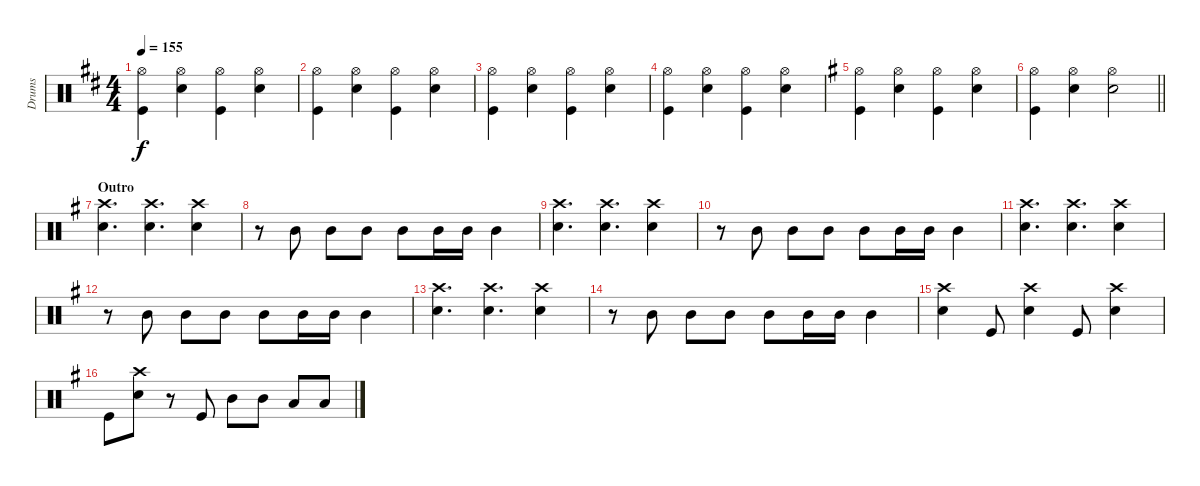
\track ("Drums" "Drums") {instrument percussion}
\staff {score}
\articulation defaults
\ts (4 4)
\tempo 155
\clef neutral
\ks d
("Hi-Hat (open)" "Kick (hit)").4{dy f} ("Hi-Hat (open)" "Snare (hit) 2").4 ("Hi-Hat (open)" "Kick (hit)").4 ("Hi-Hat (open)" "Snare (hit) 2").4 |
("Hi-Hat (open)" "Kick (hit)").4 ("Hi-Hat (open)" "Snare (hit) 2").4 ("Hi-Hat (open)" "Kick (hit)").4 ("Hi-Hat (open)" "Snare (hit) 2").4 |
("Hi-Hat (open)" "Kick (hit)").4 ("Hi-Hat (open)" "Snare (hit) 2").4 ("Hi-Hat (open)" "Kick (hit)").4 ("Hi-Hat (open)" "Snare (hit) 2").4 |
("Hi-Hat (open)" "Kick (hit)").4 ("Hi-Hat (open)" "Snare (hit) 2").4 ("Hi-Hat (open)" "Kick (hit)").4 ("Hi-Hat (open)" "Snare (hit) 2").4 |
\ks g
("Hi-Hat (open)" "Kick (hit)").4 ("Hi-Hat (open)" "Snare (hit) 2").4 ("Hi-Hat (open)" "Kick (hit)").4 ("Hi-Hat (open)" "Snare (hit) 2").4 |
\barLineRight lightlight
("Hi-Hat (open)" "Kick (hit)").4 ("Hi-Hat (open)" "Snare (hit) 2").4 ("Hi-Hat (open)" "Snare (hit) 2").2 |
\section ("" "Outro")
("Crash high (hit)" "Snare (hit) 2").4{d} ("Crash high (hit)" "Snare (hit) 2").4{d} ("Crash high (hit)" "Snare (hit) 2").4 |
r.8 "Mid Tom (hit)".8 "Mid Tom (hit)".8 "Mid Tom (hit)".8 "Mid Tom (hit)".8 "Mid Tom (hit)".16 "Mid Tom (hit)".16 "Mid Tom (hit)".4 |
("Crash high (hit)" "Snare (hit) 2").4{d} ("Crash high (hit)" "Snare (hit) 2").4{d} ("Crash high (hit)" "Snare (hit) 2").4 |
r.8 "Mid Tom (hit)".8 "Mid Tom (hit)".8 "Mid Tom (hit)".8 "Mid Tom (hit)".8 "Mid Tom (hit)".16 "Mid Tom (hit)".16 "Mid Tom (hit)".4 |
("Crash high (hit)" "Snare (hit) 2").4{d} ("Crash high (hit)" "Snare (hit) 2").4{d} ("Crash high (hit)" "Snare (hit) 2").4 |
r.8 "Mid Tom (hit)".8 "Mid Tom (hit)".8 "Mid Tom (hit)".8 "Mid Tom (hit)".8 "Mid Tom (hit)".16 "Mid Tom (hit)".16 "Mid Tom (hit)".4 |
("Crash high (hit)" "Snare (hit) 2").4{d} ("Crash high (hit)" "Snare (hit) 2").4{d} ("Crash high (hit)" "Snare (hit) 2").4 |
r.8 "Mid Tom (hit)".8 "Mid Tom (hit)".8 "Mid Tom (hit)".8 "Mid Tom (hit)".8 "Mid Tom (hit)".16 "Mid Tom (hit)".16 "Mid Tom (hit)".4 |
("Crash high (hit)" "Snare (hit) 2").4 "Kick (hit)".8 ("Crash high (hit)" "Snare (hit) 2").4 "Kick (hit)".8 ("Crash high (hit)" "Snare (hit) 2").4 |
"Kick (hit)".8 ("Crash high (hit)" "Snare (hit) 2").8 r.8 "Kick (hit)".8 "Mid Tom (hit)".8 "Mid Tom (hit)".8 "Low Tom (hit)".8 "Low Tom (hit)".8
